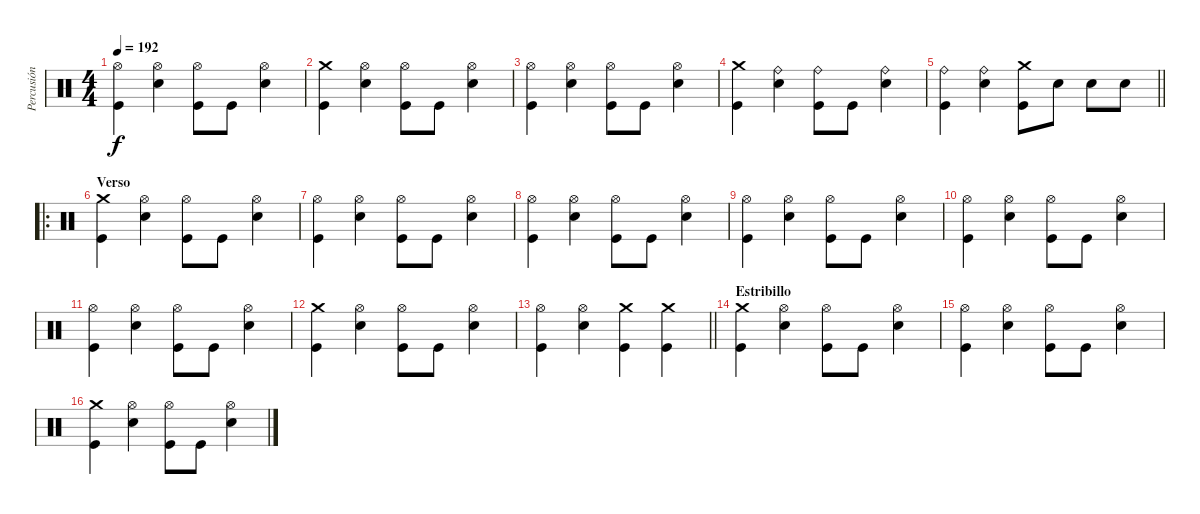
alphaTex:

\track ("Percusión" "Percusión") {instrument percussion}
\staff {score}
\articulation defaults
\ts (4 4)
\tempo 192
\clef neutral
\ks c
("Hi-Hat (open)" "Kick (hit)").4{dy f} ("Hi-Hat (open)" "Snare (hit) 2").4 ("Hi-Hat (open)" "Kick (hit)").8 "Kick (hit)".8 ("Hi-Hat (open)" "Snare (hit) 2").4 |
("Crash medium (hit)" "Kick (hit)").4 ("Hi-Hat (open)" "Snare (hit) 2").4 ("Hi-Hat (open)" "Kick (hit)").8 "Kick (hit)".8 ("Hi-Hat (open)" "Snare (hit) 2").4 |
("Hi-Hat (open)" "Kick (hit)").4 ("Hi-Hat (open)" "Snare (hit) 2").4 ("Hi-Hat (open)" "Kick (hit)").8 "Kick (hit)".8 ("Hi-Hat (open)" "Snare (hit) 2").4 |
("Crash medium (hit)" "Kick (hit)").4 ("Ride (bell)" "Snare (hit) 2").4 ("Ride (bell)" "Kick (hit)").8 "Kick (hit)".8 ("Ride (bell)" "Snare (hit) 2").4 |
\barLineRight lightlight
("Ride (bell)" "Kick (hit)").4 ("Ride (bell)" "Snare (hit) 2").4 ("Crash medium (hit)" "Kick (hit)").8 "Snare (hit) 2".8 "Snare (hit) 2".8 "Snare (hit) 2".8 |
\ro
\section ("" "Verso")
("Crash medium (hit)" "Kick (hit)").4 ("Hi-Hat (open)" "Snare (hit) 2").4 ("Hi-Hat (open)" "Kick (hit)").8 "Kick (hit)".8 ("Hi-Hat (open)" "Snare (hit) 2").4 |
("Hi-Hat (open)" "Kick (hit)").4 ("Hi-Hat (open)" "Snare (hit) 2").4 ("Hi-Hat (open)" "Kick (hit)").8 "Kick (hit)".8 ("Hi-Hat (open)" "Snare (hit) 2").4 |
("Hi-Hat (open)" "Kick (hit)").4 ("Hi-Hat (open)" "Snare (hit) 2").4 ("Hi-Hat (open)" "Kick (hit)").8 "Kick (hit)".8 ("Hi-Hat (open)" "Snare (hit) 2").4 |
("Hi-Hat (open)" "Kick (hit)").4 ("Hi-Hat (open)" "Snare (hit) 2").4 ("Hi-Hat (open)" "Kick (hit)").8 "Kick (hit)".8 ("Hi-Hat (open)" "Snare (hit) 2").4 |
("Hi-Hat (open)" "Kick (hit)").4 ("Hi-Hat (open)" "Snare (hit) 2").4 ("Hi-Hat (open)" "Kick (hit)").8 "Kick (hit)".8 ("Hi-Hat (open)" "Snare (hit) 2").4 |
("Hi-Hat (open)" "Kick (hit)").4 ("Hi-Hat (open)" "Snare (hit) 2").4 ("Hi-Hat (open)" "Kick (hit)").8 "Kick (hit)".8 ("Hi-Hat (open)" "Snare (hit) 2").4 |
("Crash medium (hit)" "Kick (hit)").4 ("Hi-Hat (open)" "Snare (hit) 2").4 ("Hi-Hat (open)" "Kick (hit)").8 "Kick (hit)".8 ("Hi-Hat (open)" "Snare (hit) 2").4 |
\barLineRight lightlight
("Hi-Hat (open)" "Kick (hit)").4 ("Hi-Hat (open)" "Snare (hit) 2").4 ("Crash medium (hit)" "Kick (hit)").4 ("Crash medium (hit)" "Kick (hit)").4 |
\section ("" "Estribillo")
("Crash medium (hit)" "Kick (hit)").4 ("Hi-Hat (open)" "Snare (hit) 2").4 ("Hi-Hat (open)" "Kick (hit)").8 "Kick (hit)".8 ("Hi-Hat (open)" "Snare (hit) 2").4 |
("Hi-Hat (open)" "Kick (hit)").4 ("Hi-Hat (open)" "Snare (hit) 2").4 ("Hi-Hat (open)" "Kick (hit)").8 "Kick (hit)".8 ("Hi-Hat (open)" "Snare (hit) 2").4 |
("Crash medium (hit)" "Kick (hit)").4 ("Hi-Hat (open)" "Snare (hit) 2").4 ("Hi-Hat (open)" "Kick (hit)").8 "Kick (hit)".8 ("Hi-Hat (open)" "Snare (hit) 2").4
